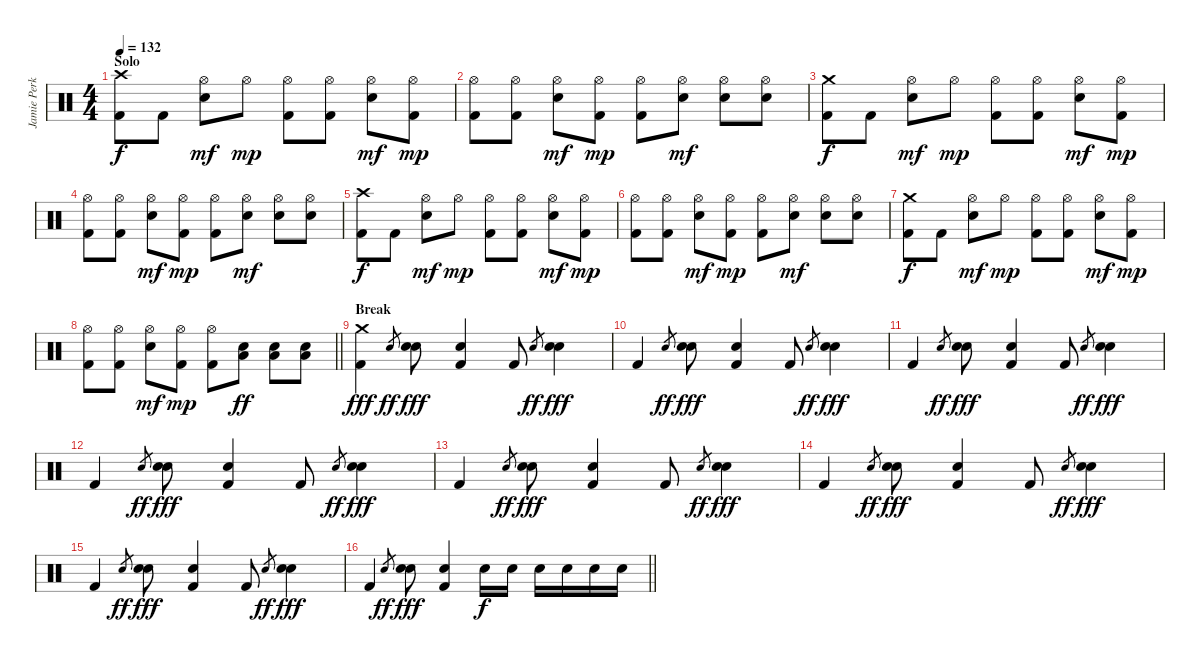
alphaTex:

\track ("Jamie Perkins" "Jamie Perk") {instrument percussion}
\staff {score}
\articulation defaults
\ts (4 4)
\section ("" "Solo")
\tempo 132
\clef neutral
\ks c
("Crash high (hit)" "Kick (hit) 2").8{dy f} "Kick (hit) 2".8 ("Hi-Hat (open)" "Snare (hit) 2").8{dy mf} "Hi-Hat (open)".8{dy mp} ("Hi-Hat (open)" "Kick (hit) 2").8 ("Hi-Hat (open)" "Kick (hit) 2").8 ("Hi-Hat (open)" "Snare (hit) 2").8{dy mf} ("Hi-Hat (open)" "Kick (hit) 2").8{dy mp} |
("Hi-Hat (open)" "Kick (hit) 2").8 ("Hi-Hat (open)" "Kick (hit) 2").8 ("Hi-Hat (open)" "Snare (hit) 2").8{dy mf} ("Hi-Hat (open)" "Kick (hit) 2").8{dy mp} ("Hi-Hat (open)" "Kick (hit) 2").8 ("Hi-Hat (open)" "Snare (hit) 2").8{dy mf} ("Hi-Hat (open)" "Snare (hit) 2").8 ("Hi-Hat (open)" "Snare (hit) 2").8 |
("Crash medium (hit)" "Kick (hit) 2").8{dy f} "Kick (hit) 2".8 ("Hi-Hat (open)" "Snare (hit) 2").8{dy mf} "Hi-Hat (open)".8{dy mp} ("Hi-Hat (open)" "Kick (hit) 2").8 ("Hi-Hat (open)" "Kick (hit) 2").8 ("Hi-Hat (open)" "Snare (hit) 2").8{dy mf} ("Hi-Hat (open)" "Kick (hit) 2").8{dy mp} |
("Hi-Hat (open)" "Kick (hit) 2").8 ("Hi-Hat (open)" "Kick (hit) 2").8 ("Hi-Hat (open)" "Snare (hit) 2").8{dy mf} ("Hi-Hat (open)" "Kick (hit) 2").8{dy mp} ("Hi-Hat (open)" "Kick (hit) 2").8 ("Hi-Hat (open)" "Snare (hit) 2").8{dy mf} ("Hi-Hat (open)" "Snare (hit) 2").8 ("Hi-Hat (open)" "Snare (hit) 2").8 |
("Crash high (hit)" "Kick (hit) 2").8{dy f} "Kick (hit) 2".8 ("Hi-Hat (open)" "Snare (hit) 2").8{dy mf} "Hi-Hat (open)".8{dy mp} ("Hi-Hat (open)" "Kick (hit) 2").8 ("Hi-Hat (open)" "Kick (hit) 2").8 ("Hi-Hat (open)" "Snare (hit) 2").8{dy mf} ("Hi-Hat (open)" "Kick (hit) 2").8{dy mp} |
("Hi-Hat (open)" "Kick (hit) 2").8 ("Hi-Hat (open)" "Kick (hit) 2").8 ("Hi-Hat (open)" "Snare (hit) 2").8{dy mf} ("Hi-Hat (open)" "Kick (hit) 2").8{dy mp} ("Hi-Hat (open)" "Kick (hit) 2").8 ("Hi-Hat (open)" "Snare (hit) 2").8{dy mf} ("Hi-Hat (open)" "Snare (hit) 2").8 ("Hi-Hat (open)" "Snare (hit) 2").8 |
("Crash medium (hit)" "Kick (hit) 2").8{dy f} "Kick (hit) 2".8 ("Hi-Hat (open)" "Snare (hit) 2").8{dy mf} "Hi-Hat (open)".8{dy mp} ("Hi-Hat (open)" "Kick (hit) 2").8 ("Hi-Hat (open)" "Kick (hit) 2").8 ("Hi-Hat (open)" "Snare (hit) 2").8{dy mf} ("Hi-Hat (open)" "Kick (hit) 2").8{dy mp} |
\barLineRight lightlight
("Hi-Hat (open)" "Kick (hit) 2").8 ("Hi-Hat (open)" "Kick (hit) 2").8 ("Hi-Hat (open)" "Snare (hit) 2").8{dy mf} ("Hi-Hat (open)" "Kick (hit) 2").8{dy mp} ("Hi-Hat (open)" "Kick (hit) 2").8 ("Low Tom (hit)" "Snare (hit) 2").8{dy ff} ("Low Tom (hit)" "Snare (hit) 2").8 ("Low Tom (hit)" "Snare (hit) 2").8 |
\section ("" "Break")
("Crash medium (hit)" "Kick (hit) 2").4{dy fff} "Snare (hit) 2".8{gr dy ff} ("Hand Clap (hit)" "Snare (hit) 2").8{dy fff} ("Hand Clap (hit)" "Kick (hit) 2").4 "Kick (hit) 2".8 "Snare (hit) 2".8{gr dy ff} ("Hand Clap (hit)" "Snare (hit) 2").4{dy fff} |
"Kick (hit) 2".4 "Snare (hit) 2".8{gr dy ff} ("Hand Clap (hit)" "Snare (hit) 2").8{dy fff} ("Hand Clap (hit)" "Kick (hit) 2").4 "Kick (hit) 2".8 "Snare (hit) 2".8{gr dy ff} ("Hand Clap (hit)" "Snare (hit) 2").4{dy fff} |
"Kick (hit) 2".4 "Snare (hit) 2".8{gr dy ff} ("Hand Clap (hit)" "Snare (hit) 2").8{dy fff} ("Hand Clap (hit)" "Kick (hit) 2").4 "Kick (hit) 2".8 "Snare (hit) 2".8{gr dy ff} ("Hand Clap (hit)" "Snare (hit) 2").4{dy fff} |
"Kick (hit) 2".4 "Snare (hit) 2".8{gr dy ff} ("Hand Clap (hit)" "Snare (hit) 2").8{dy fff} ("Hand Clap (hit)" "Kick (hit) 2").4 "Kick (hit) 2".8 "Snare (hit) 2".8{gr dy ff} ("Hand Clap (hit)" "Snare (hit) 2").4{dy fff} |
"Kick (hit) 2".4 "Snare (hit) 2".8{gr dy ff} ("Hand Clap (hit)" "Snare (hit) 2").8{dy fff} ("Hand Clap (hit)" "Kick (hit) 2").4 "Kick (hit) 2".8 "Snare (hit) 2".8{gr dy ff} ("Hand Clap (hit)" "Snare (hit) 2").4{dy fff} |
"Kick (hit) 2".4 "Snare (hit) 2".8{gr dy ff} ("Hand Clap (hit)" "Snare (hit) 2").8{dy fff} ("Hand Clap (hit)" "Kick (hit) 2").4 "Kick (hit) 2".8 "Snare (hit) 2".8{gr dy ff} ("Hand Clap (hit)" "Snare (hit) 2").4{dy fff} |
"Kick (hit) 2".4 "Snare (hit) 2".8{gr dy ff} ("Hand Clap (hit)" "Snare (hit) 2").8{dy fff} ("Hand Clap (hit)" "Kick (hit) 2").4 "Kick (hit) 2".8 "Snare (hit) 2".8{gr dy ff} ("Hand Clap (hit)" "Snare (hit) 2").4{dy fff} |
\barLineRight lightlight "Kick (hit) 2".4 "Snare (hit) 2".8{gr dy ff}
("Hand Clap (hit)" "Snare (hit) 2").8{dy fff} ("Hand Clap (hit)" "Kick (hit) 2").4 "Snare (hit) 2".16{dy f} "Snare (hit) 2".16 "Snare (hit) 2".16 "Snare (hit) 2".16 "Snare (hit) 2".16 "Snare (hit) 2".16
